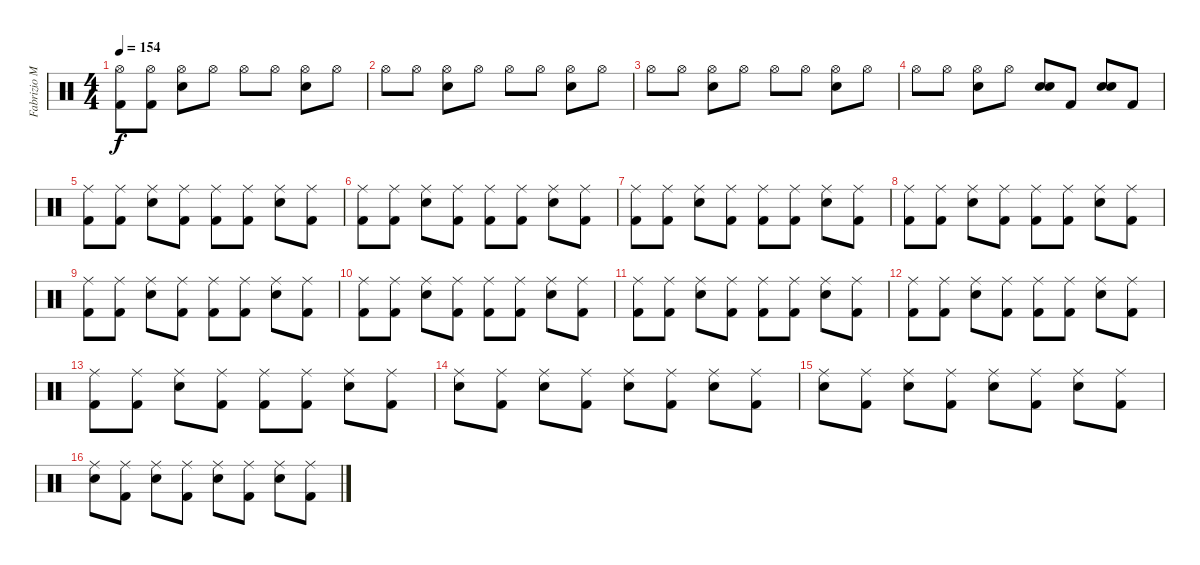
\track ("Fabrizio Moretti" "Fabrizio M") {instrument percussion}
\staff {score}
\articulation defaults
\ts (4 4)
\tempo 154
\clef neutral
\ks c
("Hi-Hat (open)" "Kick (hit) 2").8{dy f} ("Hi-Hat (open)" "Kick (hit) 2").8 ("Hi-Hat (open)" "Electric Snare (hit)").8 "Hi-Hat (open)".8 "Hi-Hat (open)".8 "Hi-Hat (open)".8 ("Hi-Hat (open)" "Electric Snare (hit)").8 "Hi-Hat (open)".8 |
"Hi-Hat (open)".8 "Hi-Hat (open)".8 ("Hi-Hat (open)" "Electric Snare (hit)").8 "Hi-Hat (open)".8 "Hi-Hat (open)".8 "Hi-Hat (open)".8 ("Hi-Hat (open)" "Electric Snare (hit)").8 "Hi-Hat (open)".8 |
"Hi-Hat (open)".8 "Hi-Hat (open)".8 ("Hi-Hat (open)" "Electric Snare (hit)").8 "Hi-Hat (open)".8 "Hi-Hat (open)".8 "Hi-Hat (open)".8 ("Hi-Hat (open)" "Electric Snare (hit)").8 "Hi-Hat (open)".8 |
"Hi-Hat (open)".8 "Hi-Hat (open)".8 ("Hi-Hat (open)" "Electric Snare (hit)").8 "Hi-Hat (open)".8 ("Electric Snare (hit)" "Electric Snare (hit)").8 "Kick (hit) 2".8 ("Electric Snare (hit)" "Electric Snare (hit)").8 "Kick (hit) 2".8 |
("Ride (middle)" "Kick (hit) 2").8 ("Ride (middle)" "Kick (hit) 2").8 ("Ride (middle)" "Electric Snare (hit)").8 ("Ride (middle)" "Kick (hit) 2").8 ("Ride (middle)" "Kick (hit) 2").8 ("Ride (middle)" "Kick (hit) 2").8 ("Ride (middle)" "Electric Snare (hit)").8 ("Ride (middle)" "Kick (hit) 2").8 |
("Ride (middle)" "Kick (hit) 2").8 ("Ride (middle)" "Kick (hit) 2").8 ("Ride (middle)" "Electric Snare (hit)").8 ("Ride (middle)" "Kick (hit) 2").8 ("Ride (middle)" "Kick (hit) 2").8 ("Ride (middle)" "Kick (hit) 2").8 ("Ride (middle)" "Electric Snare (hit)").8 ("Ride (middle)" "Kick (hit) 2").8 |
("Ride (middle)" "Kick (hit) 2").8 ("Ride (middle)" "Kick (hit) 2").8 ("Ride (middle)" "Electric Snare (hit)").8 ("Ride (middle)" "Kick (hit) 2").8 ("Ride (middle)" "Kick (hit) 2").8 ("Ride (middle)" "Kick (hit) 2").8 ("Ride (middle)" "Electric Snare (hit)").8 ("Ride (middle)" "Kick (hit) 2").8 |
("Ride (middle)" "Kick (hit) 2").8 ("Ride (middle)" "Kick (hit) 2").8 ("Ride (middle)" "Electric Snare (hit)").8 ("Ride (middle)" "Kick (hit) 2").8 ("Ride (middle)" "Kick (hit) 2").8 ("Ride (middle)" "Kick (hit) 2").8 ("Ride (middle)" "Electric Snare (hit)").8 ("Ride (middle)" "Kick (hit) 2").8 |
("Ride (middle)" "Kick (hit) 2").8 ("Ride (middle)" "Kick (hit) 2").8 ("Ride (middle)" "Electric Snare (hit)").8 ("Ride (middle)" "Kick (hit) 2").8 ("Ride (middle)" "Kick (hit) 2").8 ("Ride (middle)" "Kick (hit) 2").8 ("Ride (middle)" "Electric Snare (hit)").8 ("Ride (middle)" "Kick (hit) 2").8 |
("Ride (middle)" "Kick (hit) 2").8 ("Ride (middle)" "Kick (hit) 2").8 ("Ride (middle)" "Electric Snare (hit)").8 ("Ride (middle)" "Kick (hit) 2").8 ("Ride (middle)" "Kick (hit) 2").8 ("Ride (middle)" "Kick (hit) 2").8 ("Ride (middle)" "Electric Snare (hit)").8 ("Ride (middle)" "Kick (hit) 2").8 |
("Ride (middle)" "Kick (hit) 2").8 ("Ride (middle)" "Kick (hit) 2").8 ("Ride (middle)" "Electric Snare (hit)").8 ("Ride (middle)" "Kick (hit) 2").8 ("Ride (middle)" "Kick (hit) 2").8 ("Ride (middle)" "Kick (hit) 2").8 ("Ride (middle)" "Electric Snare (hit)").8 ("Ride (middle)" "Kick (hit) 2").8 |
("Ride (middle)" "Kick (hit) 2").8 ("Ride (middle)" "Kick (hit) 2").8 ("Ride (middle)" "Electric Snare (hit)").8 ("Ride (middle)" "Kick (hit) 2").8 ("Ride (middle)" "Kick (hit) 2").8 ("Ride (middle)" "Kick (hit) 2").8 ("Ride (middle)" "Electric Snare (hit)").8 ("Ride (middle)" "Kick (hit) 2").8 |
("Ride (middle)" "Kick (hit) 2").8 ("Ride (middle)" "Kick (hit) 2").8 ("Ride (middle)" "Electric Snare (hit)").8 ("Ride (middle)" "Kick (hit) 2").8 ("Ride (middle)" "Kick (hit) 2").8 ("Ride (middle)" "Kick (hit) 2").8 ("Ride (middle)" "Electric Snare (hit)").8 ("Ride (middle)" "Kick (hit) 2").8 |
("Ride (middle)" "Electric Snare (hit)").8 ("Ride (middle)" "Kick (hit) 2").8 ("Ride (middle)" "Electric Snare (hit)").8 ("Ride (middle)" "Kick (hit) 2").8 ("Ride (middle)" "Electric Snare (hit)").8 ("Ride (middle)" "Kick (hit) 2").8 ("Ride (middle)" "Electric Snare (hit)").8 ("Ride (middle)" "Kick (hit) 2").8 |
("Ride (middle)" "Electric Snare (hit)").8 ("Ride (middle)" "Kick (hit) 2").8 ("Ride (middle)" "Electric Snare (hit)").8 ("Ride (middle)" "Kick (hit) 2").8 ("Ride (middle)" "Electric Snare (hit)").8 ("Ride (middle)" "Kick (hit) 2").8 ("Ride (middle)" "Electric Snare (hit)").8 ("Ride (middle)" "Kick (hit) 2").8 |
("Ride (middle)" "Electric Snare (hit)").8 ("Ride (middle)" "Kick (hit) 2").8 ("Ride (middle)" "Electric Snare (hit)").8 ("Ride (middle)" "Kick (hit) 2").8 ("Ride (middle)" "Electric Snare (hit)").8 ("Ride (middle)" "Kick (hit) 2").8 ("Ride (middle)" "Electric Snare (hit)").8 ("Ride (middle)" "Kick (hit) 2").8
